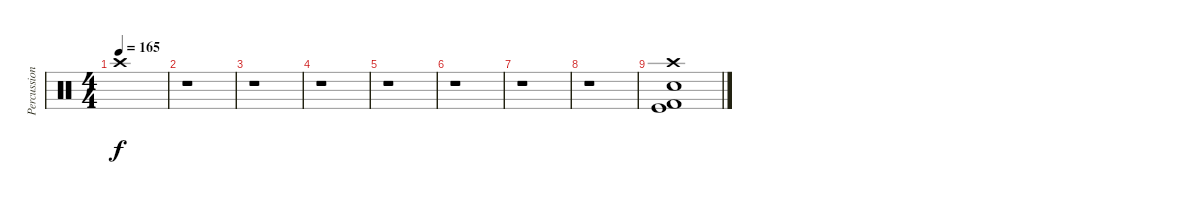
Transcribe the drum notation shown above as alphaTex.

\track ("Percussions" "Percussion") {instrument percussion}
\staff {score}
\articulation defaults
\ts (4 4)
\tempo 165
\clef neutral
\ks c "Crash high (hit)".1{dy f}
|
r.1 |
r.1 |
r.1 |
r.1 |
r.1 |
r.1 |
r.1 |
("Snare (hit) 2" "Kick (hit)" "Kick (hit) 2" "Crash high (hit)").1
